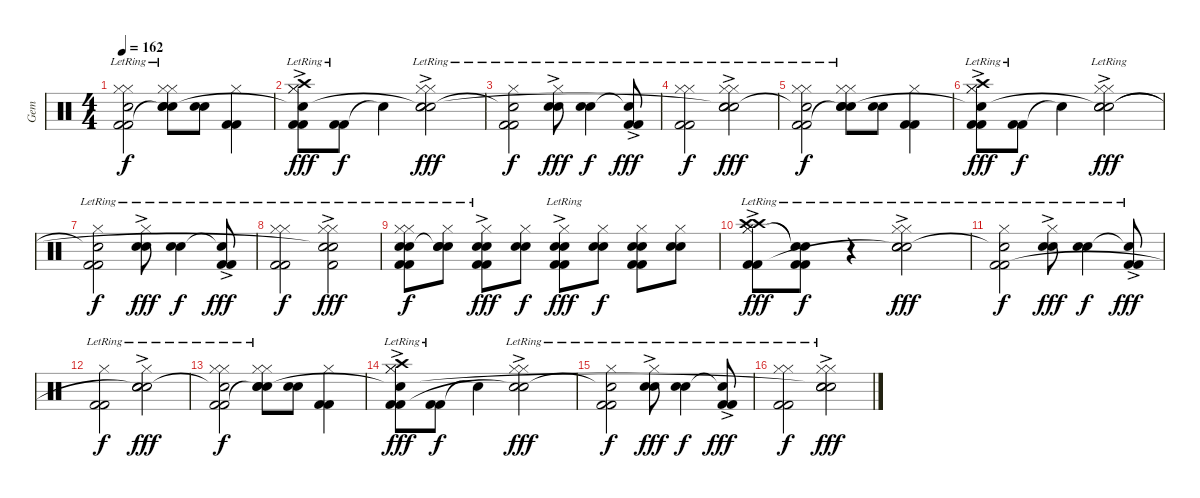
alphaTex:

\track ("Gem" "Gem") {instrument percussion}
\staff {score}
\articulation defaults
\ts (4 4)
\tempo 162
\clef neutral
\ks c
("Hi-Hat (closed)"{lr} "Hi-Hat (closed)"{lr} "Kick (hit) 2" "Snare (hit)"{t} "Kick (hit) 2"{lr}).2{dy f} ("Hi-Hat (closed)"{lr} "Hi-Hat (closed)"{lr} "Snare (hit) 2" "Snare (hit) 2"{lr} "Snare (hit)"{t}).8 ("Snare (hit) 2" "Snare (hit) 2").8 ("Hi-Hat (closed)" "Kick (hit) 2" "Kick (hit) 2").4 |
("Hi-Hat (closed)"{lr} "Hi-Hat (closed)"{lr} "Crash high (hit)"{ac lr} "Kick (hit) 2" "Snare (hit)"{t} "Kick (hit) 2"{lr}).8{dy fff} ("Kick (hit) 2" "Kick (hit) 2"{lr}).8{dy f} "Snare (hit)"{t}.4 ("Hi-Hat (closed)"{lr} "Hi-Hat (closed)"{lr} "Snare (hit) 2" "Snare (hit) 2"{ac lr} "Snare (hit)"{t}).2{dy fff} |
("Hi-Hat (closed)"{lr} "Kick (hit) 2" "Snare (hit)"{t} "Kick (hit) 2"{lr}).2{dy f} ("Hi-Hat (closed)"{lr} "Snare (hit) 2" "Snare (hit) 2"{ac lr}).8{dy fff} ("Snare (hit) 2" "Snare (hit) 2"{lr}).4{dy f} ("Kick (hit) 2" "Snare (hit)"{t} "Kick (hit) 2"{ac lr}).8{dy fff} |
("Hi-Hat (closed)"{lr} "Hi-Hat (closed)"{lr} "Kick (hit) 2" "Kick (hit) 2"{lr}).2{dy f} ("Hi-Hat (closed)"{lr} "Hi-Hat (closed)"{lr} "Snare (hit) 2" "Snare (hit) 2"{ac lr} "Snare (hit)"{t}).2{dy fff} |
("Hi-Hat (closed)"{lr} "Hi-Hat (closed)"{lr} "Kick (hit) 2" "Snare (hit)"{t} "Kick (hit) 2"{lr}).2{dy f} ("Hi-Hat (closed)"{lr} "Hi-Hat (closed)"{lr} "Snare (hit) 2" "Snare (hit) 2"{lr} "Snare (hit)"{t}).8 ("Snare (hit) 2" "Snare (hit) 2").8 ("Hi-Hat (closed)" "Kick (hit) 2" "Kick (hit) 2").4 |
("Hi-Hat (closed)"{lr} "Hi-Hat (closed)"{lr} "Crash high (hit)"{ac lr} "Kick (hit) 2" "Snare (hit)"{t} "Kick (hit) 2"{lr}).8{dy fff} ("Kick (hit) 2" "Kick (hit) 2"{lr}).8{dy f} "Snare (hit)"{t}.4 ("Hi-Hat (closed)"{lr} "Hi-Hat (closed)"{lr} "Snare (hit) 2" "Snare (hit) 2"{ac lr} "Snare (hit)"{t}).2{dy fff} |
("Hi-Hat (closed)"{lr} "Kick (hit) 2" "Snare (hit)"{t} "Kick (hit) 2"{lr}).2{dy f} ("Hi-Hat (closed)"{lr} "Snare (hit) 2" "Snare (hit) 2"{ac lr}).8{dy fff} ("Snare (hit) 2" "Snare (hit) 2"{lr}).4{dy f} ("Kick (hit) 2" "Snare (hit)"{t} "Kick (hit) 2"{ac lr}).8{dy fff} |
("Hi-Hat (closed)"{lr} "Hi-Hat (closed)"{lr} "Kick (hit) 2" "Kick (hit) 2"{lr}).2{dy f} ("Hi-Hat (closed)"{lr} "Hi-Hat (closed)"{lr} "Kick (hit) 2" "Snare (hit) 2"{ac lr} "Snare (hit)"{t}).2{dy fff} |
("Hi-Hat (closed)"{lr} "Hi-Hat (closed)"{lr} "Electric Snare (hit)"{lr} "Snare (hit) 2" "Kick (hit) 2" "Kick (hit) 2"{lr}).8{dy f} ("Hi-Hat (closed)"{lr} "Electric Snare (hit)" "Snare (hit) 2" "Snare (hit)"{t}).8 ("Hi-Hat (closed)" "Electric Snare (hit)"{lr} "Snare (hit) 2"{ac} "Kick (hit) 2" "Kick (hit) 2").8{dy fff} ("Hi-Hat (closed)" "Electric Snare (hit)" "Snare (hit) 2").8{dy f} ("Hi-Hat (closed)" "Electric Snare (hit)"{lr} "Snare (hit) 2"{ac lr} "Kick (hit) 2" "Kick (hit) 2").8{dy fff} ("Hi-Hat (closed)" "Electric Snare (hit)" "Snare (hit) 2").8{dy f} ("Hi-Hat (closed)" "Electric Snare (hit)" "Snare (hit) 2" "Kick (hit) 2" "Kick (hit) 2").8 ("Hi-Hat (closed)" "Electric Snare (hit)" "Snare (hit) 2").8 |
("Hi-Hat (closed)"{lr} "Hi-Hat (closed)"{lr} "Crash high (hit)"{ac lr} "Crash high (hit)"{ac lr} "Kick (hit) 2" "Kick (hit) 2"{lr}).8{dy fff} ("Snare (hit)"{t} "Snare (hit)"{t} "Kick (hit) 2" "Kick (hit) 2"{lr}).8{dy f} r.4 ("Hi-Hat (closed)"{lr} "Hi-Hat (closed)"{lr} "Snare (hit) 2" "Snare (hit) 2"{ac lr} "Snare (hit)"{t}).2{dy fff} |
("Hi-Hat (closed)"{lr} "Kick (hit) 2" "Snare (hit)"{t} "Kick (hit) 2"{lr}).2{dy f} ("Hi-Hat (closed)"{lr} "Snare (hit) 2" "Snare (hit) 2"{ac lr}).8{dy fff} ("Snare (hit) 2" "Snare (hit) 2"{lr}).4{dy f} ("Kick (hit) 2" "Snare (hit)"{t} "Kick (hit) 2"{ac lr}).8{dy fff} |
("Hi-Hat (closed)"{lr} "Kick (hit) 2"{lr} "Kick (hit) 2"{lr}).2{dy f} ("Hi-Hat (closed)"{lr} "Snare (hit) 2"{lr} "Snare (hit) 2"{ac lr} "Snare (hit)"{t}).2{dy fff} |
("Hi-Hat (closed)"{lr} "Hi-Hat (closed)"{lr} "Kick (hit) 2" "Snare (hit)"{t} "Kick (hit) 2"{lr}).2{dy f} ("Hi-Hat (closed)"{lr} "Hi-Hat (closed)"{lr} "Snare (hit) 2" "Snare (hit) 2"{lr} "Snare (hit)"{t}).8 ("Snare (hit) 2" "Snare (hit) 2").8 ("Hi-Hat (closed)" "Kick (hit) 2" "Kick (hit) 2").4 |
("Hi-Hat (closed)"{lr} "Hi-Hat (closed)"{lr} "Crash high (hit)"{ac lr} "Kick (hit) 2" "Snare (hit)"{t} "Kick (hit) 2"{lr}).8{dy fff} ("Kick (hit) 2" "Kick (hit) 2"{lr}).8{dy f} "Snare (hit)"{t}.4 ("Hi-Hat (closed)"{lr} "Hi-Hat (closed)"{lr} "Snare (hit) 2"{ac lr} "Snare (hit)"{t}).2{dy fff} |
("Hi-Hat (closed)"{lr} "Kick (hit) 2" "Snare (hit)"{t} "Kick (hit) 2"{lr}).2{dy f} ("Hi-Hat (closed)"{lr} "Snare (hit) 2" "Snare (hit) 2"{ac lr}).8{dy fff} ("Snare (hit) 2" "Snare (hit) 2"{lr}).4{dy f} ("Kick (hit) 2" "Snare (hit)"{t} "Kick (hit) 2"{ac lr}).8{dy fff} |
("Hi-Hat (closed)"{lr} "Hi-Hat (closed)"{lr} "Kick (hit) 2" "Kick (hit) 2"{lr}).2{dy f} ("Hi-Hat (closed)"{lr} "Hi-Hat (closed)"{lr} "Snare (hit) 2" "Snare (hit) 2"{ac lr} "Snare (hit)"{t}).2{dy fff}
